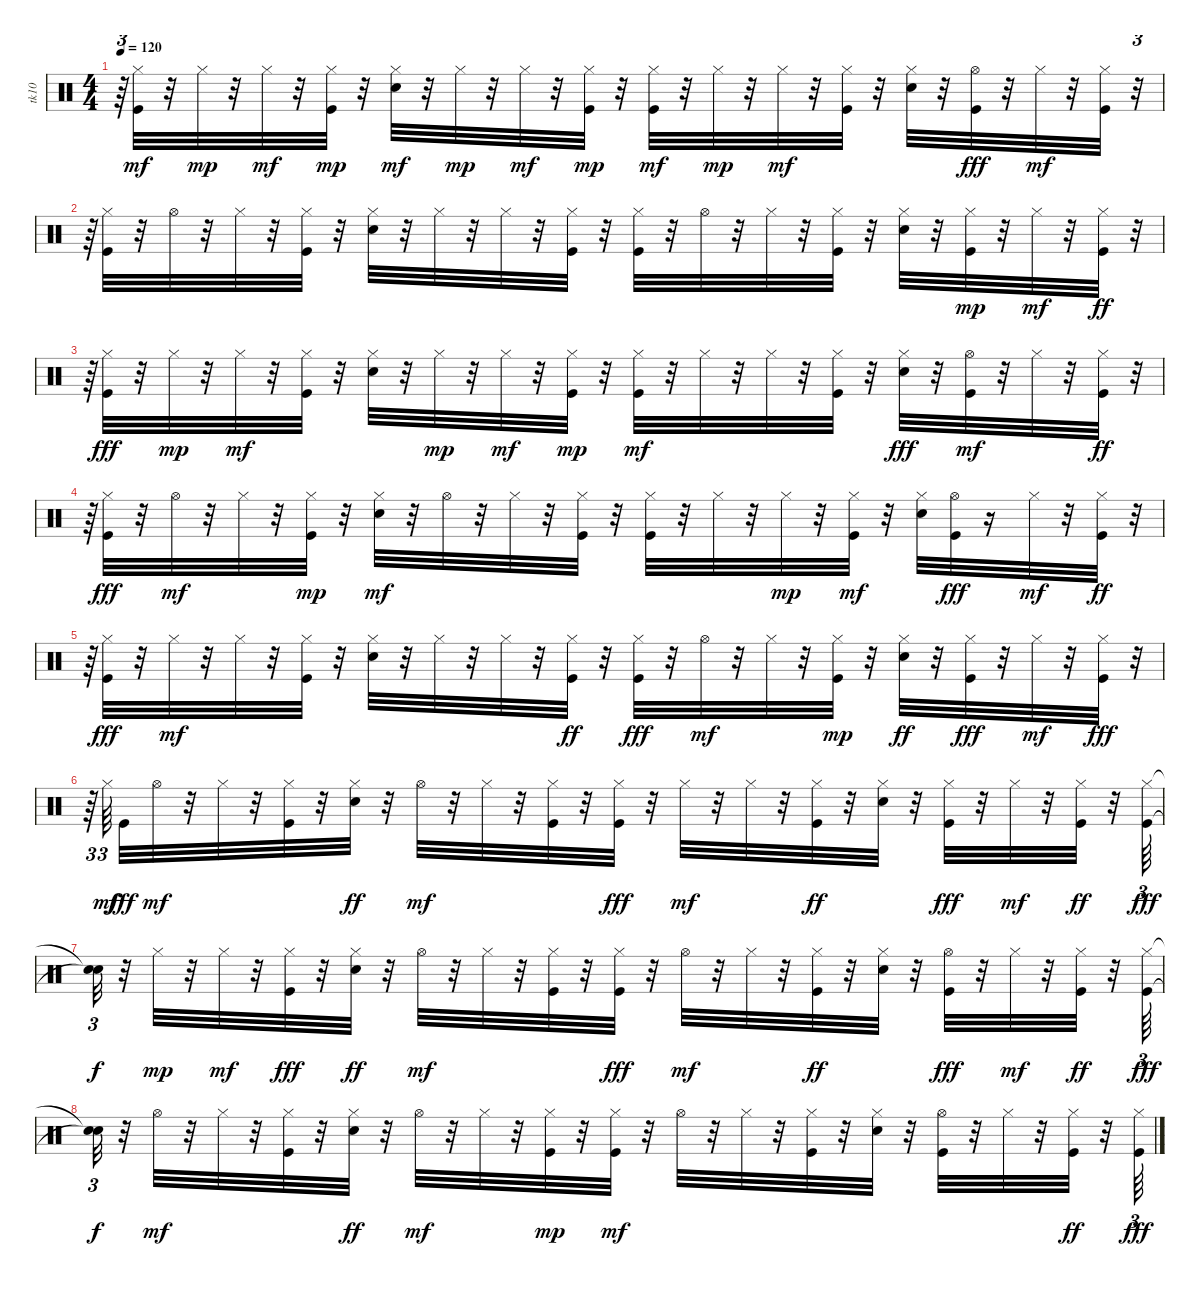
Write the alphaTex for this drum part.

\track ("tk10" "tk10") {instrument percussion}
\staff {score}
\articulation defaults
\ts (4 4)
\tempo 120
\clef neutral
\ks c
r.64{tu (3 2) dy mf} ("Kick (hit)" "Hi-Hat (closed)").32 r.32 "Hi-Hat (closed)".32{dy mp} r.32 "Hi-Hat (closed)".32{dy mf} r.32 ("Kick (hit)" "Hi-Hat (closed)").32{dy mp} r.32 ("Snare (hit) 2" "Hi-Hat (closed)").32{dy mf} r.32 "Hi-Hat (closed)".32{dy mp} r.32 "Hi-Hat (closed)".32{dy mf} r.32 ("Kick (hit)" "Hi-Hat (closed)").32{dy mp} r.32 ("Kick (hit)" "Hi-Hat (closed)").32{dy mf} r.32 "Hi-Hat (closed)".32{dy mp} r.32 "Hi-Hat (closed)".32{dy mf} r.32 ("Kick (hit)" "Hi-Hat (closed)").32 r.32 ("Snare (hit) 2" "Hi-Hat (closed)").32 r.32 ("Hi-Hat (open)" "Kick (hit)").32{dy fff} r.32 "Hi-Hat (closed)".32{dy mf} r.32 ("Kick (hit)" "Hi-Hat (closed)").32 r.32{tu (3 2)} |
r.64{tu (3 2)} ("Kick (hit)" "Hi-Hat (closed)").32 r.32 "Hi-Hat (open)".32 r.32 "Hi-Hat (closed)".32 r.32 ("Kick (hit)" "Hi-Hat (closed)").32 r.32 ("Snare (hit) 2" "Hi-Hat (closed)").32 r.32 "Hi-Hat (closed)".32 r.32 "Hi-Hat (closed)".32 r.32 ("Kick (hit)" "Hi-Hat (closed)").32 r.32 ("Kick (hit)" "Hi-Hat (closed)").32 r.32 "Hi-Hat (open)".32 r.32 "Hi-Hat (closed)".32 r.32 ("Kick (hit)" "Hi-Hat (closed)").32 r.32 ("Snare (hit) 2" "Hi-Hat (closed)").32 r.32 ("Kick (hit)" "Hi-Hat (closed)").32{dy mp} r.32 "Hi-Hat (closed)".32{dy mf} r.32 ("Hi-Hat (closed)" "Kick (hit)").32{dy ff} r.32{tu (3 2)} |
r.64{tu (3 2)} ("Hi-Hat (closed)" "Kick (hit)").32{dy fff} r.32 "Hi-Hat (closed)".32{dy mp} r.32 "Hi-Hat (closed)".32{dy mf} r.32 ("Kick (hit)" "Hi-Hat (closed)").32 r.32 ("Snare (hit) 2" "Hi-Hat (closed)").32 r.32 "Hi-Hat (closed)".32{dy mp} r.32 "Hi-Hat (closed)".32{dy mf} r.32 ("Kick (hit)" "Hi-Hat (closed)").32{dy mp} r.32 ("Kick (hit)" "Hi-Hat (closed)").32{dy mf} r.32 "Hi-Hat (closed)".32 r.32 "Hi-Hat (closed)".32 r.32 ("Kick (hit)" "Hi-Hat (closed)").32 r.32 ("Snare (hit) 2" "Hi-Hat (closed)").32{dy fff} r.32 ("Kick (hit)" "Hi-Hat (open)").32{dy mf} r.32 "Hi-Hat (closed)".32 r.32 ("Hi-Hat (closed)" "Kick (hit)").32{dy ff} r.32{tu (3 2)} |
r.64{tu (3 2)} ("Hi-Hat (closed)" "Kick (hit)").32{dy fff} r.32 "Hi-Hat (open)".32{dy mf} r.32 "Hi-Hat (closed)".32 r.32 ("Kick (hit)" "Hi-Hat (closed)").32{dy mp} r.32 ("Snare (hit) 2" "Hi-Hat (closed)").32{dy mf} r.32 "Hi-Hat (open)".32 r.32 "Hi-Hat (closed)".32 r.32 ("Kick (hit)" "Hi-Hat (closed)").32 r.32 ("Kick (hit)" "Hi-Hat (closed)").32 r.32 "Hi-Hat (closed)".32 r.32 "Hi-Hat (closed)".32{dy mp} r.32 ("Kick (hit)" "Hi-Hat (closed)").32{dy mf} r.32 ("Snare (hit) 2" "Hi-Hat (closed)").32 ("Hi-Hat (open)" "Kick (hit)").32{dy fff} r.16 "Hi-Hat (closed)".32{dy mf} r.32 ("Hi-Hat (closed)" "Kick (hit)").32{dy ff} r.32{tu (3 2)} |
r.64{tu (3 2)} ("Hi-Hat (closed)" "Kick (hit)").32{dy fff} r.32 "Hi-Hat (closed)".32{dy mf} r.32 "Hi-Hat (closed)".32 r.32 ("Kick (hit)" "Hi-Hat (closed)").32 r.32 ("Snare (hit) 2" "Hi-Hat (closed)").32 r.32 "Hi-Hat (closed)".32 r.32 "Hi-Hat (closed)".32 r.32 ("Hi-Hat (closed)" "Kick (hit)").32{dy ff} r.32 ("Hi-Hat (closed)" "Kick (hit)").32{dy fff} r.32 "Hi-Hat (open)".32{dy mf} r.32 "Hi-Hat (closed)".32 r.32 ("Kick (hit)" "Hi-Hat (closed)").32{dy mp} r.32 ("Hi-Hat (closed)" "Snare (hit) 2").32{dy ff} r.32 ("Hi-Hat (closed)" "Kick (hit)").32{dy fff} r.32 "Hi-Hat (closed)".32{dy mf} r.32 ("Hi-Hat (closed)" "Kick (hit)").32{dy fff} r.32{tu (3 2)} |
r.64{tu (3 2)} "Hi-Hat (closed)".64{tu (3 2) dy mf beam splitsecondary} "Kick (hit)".32{dy fff} "Hi-Hat (open)".32{dy mf} r.32 "Hi-Hat (closed)".32 r.32 ("Kick (hit)" "Hi-Hat (closed)").32 r.32 ("Hi-Hat (closed)" "Snare (hit) 2").32{dy ff} r.32 "Hi-Hat (open)".32{dy mf} r.32 "Hi-Hat (closed)".32 r.32 ("Kick (hit)" "Hi-Hat (closed)").32 r.32 ("Hi-Hat (closed)" "Kick (hit)").32{dy fff} r.32 "Hi-Hat (closed)".32{dy mf} r.32 "Hi-Hat (closed)".32 r.32 ("Hi-Hat (closed)" "Kick (hit)").32{dy ff} r.32 ("Hi-Hat (closed)" "Snare (hit) 2").32 r.32 ("Hi-Hat (closed)" "Kick (hit)").32{dy fff} r.32 "Hi-Hat (closed)".32{dy mf} r.32 ("Hi-Hat (closed)" "Kick (hit)").32{dy ff} r.32 ("Hi-Hat (closed)" "Kick (hit)").64{tu (3 2) dy fff} |
("Snare (hit)"{t} "Snare (hit)"{t}).32{tu (3 2) dy f} r.32 "Hi-Hat (closed)".32{dy mp} r.32 "Hi-Hat (closed)".32{dy mf} r.32 ("Hi-Hat (closed)" "Kick (hit)").32{dy fff} r.32 ("Hi-Hat (closed)" "Snare (hit) 2").32{dy ff} r.32 "Hi-Hat (open)".32{dy mf} r.32 "Hi-Hat (closed)".32 r.32 ("Kick (hit)" "Hi-Hat (closed)").32 r.32 ("Kick (hit)" "Hi-Hat (closed)").32{dy fff} r.32 "Hi-Hat (open)".32{dy mf} r.32 "Hi-Hat (closed)".32 r.32 ("Hi-Hat (closed)" "Kick (hit)").32{dy ff} r.32 ("Hi-Hat (closed)" "Snare (hit) 2").32 r.32 ("Hi-Hat (open)" "Kick (hit)").32{dy fff} r.32 "Hi-Hat (closed)".32{dy mf} r.32 ("Hi-Hat (closed)" "Kick (hit)").32{dy ff} r.32 ("Hi-Hat (closed)" "Kick (hit)").64{tu (3 2) dy fff} |
("Snare (hit)"{t} "Snare (hit)"{t}).32{tu (3 2) dy f} r.32 "Hi-Hat (open)".32{dy mf} r.32 "Hi-Hat (closed)".32 r.32 ("Kick (hit)" "Hi-Hat (closed)").32 r.32 ("Hi-Hat (closed)" "Snare (hit) 2").32{dy ff} r.32 "Hi-Hat (open)".32{dy mf} r.32 "Hi-Hat (closed)".32 r.32 ("Kick (hit)" "Hi-Hat (closed)").32{dy mp} r.32 ("Kick (hit)" "Hi-Hat (closed)").32{dy mf} r.32 "Hi-Hat (open)".32 r.32 "Hi-Hat (closed)".32 r.32 ("Kick (hit)" "Hi-Hat (closed)").32 r.32 ("Snare (hit) 2" "Hi-Hat (closed)").32 r.32 ("Kick (hit)" "Hi-Hat (open)").32 r.32 "Hi-Hat (closed)".32 r.32 ("Hi-Hat (closed)" "Kick (hit)").32{dy ff} r.32 ("Hi-Hat (closed)" "Kick (hit)").64{tu (3 2) dy fff}
